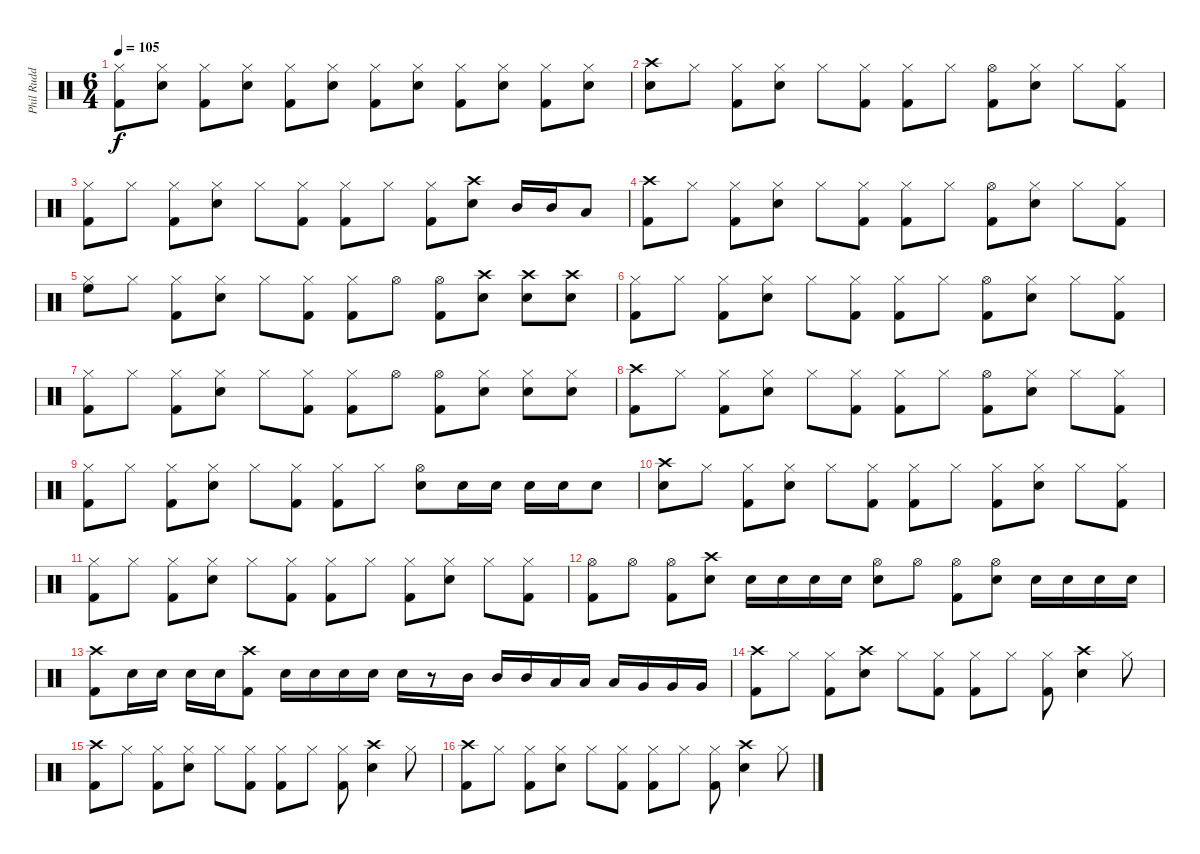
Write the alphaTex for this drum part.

\track ("Phil Rudd" "Phil Rudd") {instrument percussion}
\staff {score}
\articulation defaults
\ts (6 4)
\tempo 105
\clef neutral
\ks c
("Hi-Hat (closed)" "Kick (hit) 2").8{dy f} ("Hi-Hat (closed)" "Electric Snare (hit)").8 ("Hi-Hat (closed)" "Kick (hit) 2").8 ("Hi-Hat (closed)" "Electric Snare (hit)").8 ("Hi-Hat (closed)" "Kick (hit) 2").8 ("Hi-Hat (closed)" "Electric Snare (hit)").8 ("Hi-Hat (closed)" "Kick (hit) 2").8 ("Hi-Hat (closed)" "Electric Snare (hit)").8 ("Hi-Hat (closed)" "Kick (hit) 2").8 ("Hi-Hat (closed)" "Electric Snare (hit)").8 ("Hi-Hat (closed)" "Kick (hit) 2").8 ("Hi-Hat (closed)" "Electric Snare (hit)").8 |
("Crash high (hit)" "Electric Snare (hit)").8 "Hi-Hat (closed)".8 ("Hi-Hat (closed)" "Kick (hit) 2").8 ("Hi-Hat (closed)" "Electric Snare (hit)").8 "Hi-Hat (closed)".8 ("Hi-Hat (closed)" "Kick (hit) 2").8 ("Hi-Hat (closed)" "Kick (hit) 2").8 "Hi-Hat (closed)".8 ("Hi-Hat (open)" "Kick (hit) 2").8 ("Hi-Hat (closed)" "Electric Snare (hit)").8 "Hi-Hat (closed)".8 ("Hi-Hat (closed)" "Kick (hit) 2").8 |
("Hi-Hat (closed)" "Kick (hit) 2").8 "Hi-Hat (closed)".8 ("Hi-Hat (closed)" "Kick (hit) 2").8 ("Hi-Hat (closed)" "Electric Snare (hit)").8 "Hi-Hat (closed)".8 ("Hi-Hat (closed)" "Kick (hit) 2").8 ("Hi-Hat (closed)" "Kick (hit) 2").8 "Hi-Hat (closed)".8 ("Hi-Hat (closed)" "Kick (hit) 2").8 ("Crash high (hit)" "Electric Snare (hit)").8 "Mid Tom (hit)".16 "Mid Tom (hit)".16 "Low Tom (hit)".8 |
("Crash high (hit)" "Kick (hit) 2").8 "Hi-Hat (closed)".8 ("Hi-Hat (closed)" "Kick (hit) 2").8 ("Hi-Hat (closed)" "Electric Snare (hit)").8 "Hi-Hat (closed)".8 ("Hi-Hat (closed)" "Kick (hit) 2").8 ("Hi-Hat (closed)" "Kick (hit) 2").8 "Hi-Hat (closed)".8 ("Hi-Hat (open)" "Kick (hit) 2").8 ("Hi-Hat (closed)" "Electric Snare (hit)").8 "Hi-Hat (closed)".8 ("Hi-Hat (closed)" "Kick (hit) 2").8 |
("Hi-Hat (closed)" "High Floor Tom (hit)").8 "Hi-Hat (closed)".8 ("Hi-Hat (closed)" "Kick (hit) 2").8 ("Hi-Hat (closed)" "Electric Snare (hit)").8 "Hi-Hat (closed)".8 ("Hi-Hat (closed)" "Kick (hit) 2").8 ("Hi-Hat (closed)" "Kick (hit) 2").8 "Hi-Hat (open)".8 ("Hi-Hat (open)" "Kick (hit) 2").8 ("Crash high (hit)" "Electric Snare (hit)").8 ("Crash high (hit)" "Electric Snare (hit)").8 ("Crash high (hit)" "Electric Snare (hit)").8 |
("Hi-Hat (closed)" "Kick (hit) 2").8 "Hi-Hat (closed)".8 ("Hi-Hat (closed)" "Kick (hit) 2").8 ("Hi-Hat (closed)" "Electric Snare (hit)").8 "Hi-Hat (closed)".8 ("Hi-Hat (closed)" "Kick (hit) 2").8 ("Hi-Hat (closed)" "Kick (hit) 2").8 "Hi-Hat (closed)".8 ("Hi-Hat (open)" "Kick (hit) 2").8 ("Hi-Hat (closed)" "Electric Snare (hit)").8 "Hi-Hat (closed)".8 ("Hi-Hat (closed)" "Kick (hit) 2").8 |
("Hi-Hat (closed)" "Kick (hit) 2").8 "Hi-Hat (closed)".8 ("Hi-Hat (closed)" "Kick (hit) 2").8 ("Hi-Hat (closed)" "Electric Snare (hit)").8 "Hi-Hat (closed)".8 ("Hi-Hat (closed)" "Kick (hit) 2").8 ("Hi-Hat (closed)" "Kick (hit) 2").8 "Hi-Hat (open)".8 ("Hi-Hat (open)" "Kick (hit) 2").8 ("Hi-Hat (closed)" "Electric Snare (hit)").8 ("Hi-Hat (closed)" "Electric Snare (hit)").8 ("Hi-Hat (closed)" "Electric Snare (hit)").8 |
("Crash high (hit)" "Kick (hit) 2").8 "Hi-Hat (closed)".8 ("Hi-Hat (closed)" "Kick (hit) 2").8 ("Hi-Hat (closed)" "Electric Snare (hit)").8 "Hi-Hat (closed)".8 ("Hi-Hat (closed)" "Kick (hit) 2").8 ("Hi-Hat (closed)" "Kick (hit) 2").8 "Hi-Hat (closed)".8 ("Hi-Hat (open)" "Kick (hit) 2").8 ("Hi-Hat (closed)" "Electric Snare (hit)").8 "Hi-Hat (closed)".8 ("Hi-Hat (closed)" "Kick (hit) 2").8 |
("Hi-Hat (closed)" "Kick (hit) 2").8 "Hi-Hat (closed)".8 ("Hi-Hat (closed)" "Kick (hit) 2").8 ("Hi-Hat (closed)" "Electric Snare (hit)").8 "Hi-Hat (closed)".8 ("Hi-Hat (closed)" "Kick (hit) 2").8 ("Hi-Hat (closed)" "Kick (hit) 2").8 "Hi-Hat (closed)".8 ("Hi-Hat (open)" "Electric Snare (hit)").8 "Electric Snare (hit)".16 "Electric Snare (hit)".16 "Electric Snare (hit)".16 "Electric Snare (hit)".16 "Electric Snare (hit)".8 |
("Crash high (hit)" "Electric Snare (hit)").8 "Hi-Hat (closed)".8 ("Hi-Hat (closed)" "Kick (hit) 2").8 ("Hi-Hat (closed)" "Electric Snare (hit)").8 "Hi-Hat (closed)".8 ("Hi-Hat (closed)" "Kick (hit) 2").8 ("Hi-Hat (closed)" "Kick (hit) 2").8 "Hi-Hat (closed)".8 ("Hi-Hat (closed)" "Kick (hit) 2").8 ("Hi-Hat (closed)" "Electric Snare (hit)").8 "Hi-Hat (closed)".8 ("Hi-Hat (closed)" "Kick (hit) 2").8 |
("Hi-Hat (closed)" "Kick (hit) 2").8 "Hi-Hat (closed)".8 ("Hi-Hat (closed)" "Kick (hit) 2").8 ("Hi-Hat (closed)" "Electric Snare (hit)").8 "Hi-Hat (closed)".8 ("Hi-Hat (closed)" "Kick (hit) 2").8 ("Hi-Hat (closed)" "Kick (hit) 2").8 "Hi-Hat (closed)".8 ("Hi-Hat (closed)" "Kick (hit) 2").8 ("Hi-Hat (closed)" "Electric Snare (hit)").8 "Hi-Hat (closed)".8 ("Hi-Hat (closed)" "Kick (hit) 2").8 |
("Hi-Hat (open)" "Kick (hit) 2").8 "Hi-Hat (open)".8 ("Hi-Hat (open)" "Kick (hit) 2").8 ("Crash high (hit)" "Electric Snare (hit)").8 "Electric Snare (hit)".16 "Electric Snare (hit)".16 "Electric Snare (hit)".16 "Electric Snare (hit)".16 ("Hi-Hat (open)" "Electric Snare (hit)").8 "Hi-Hat (open)".8 ("Hi-Hat (open)" "Kick (hit) 2").8 ("Hi-Hat (open)" "Electric Snare (hit)").8 "Electric Snare (hit)".16 "Electric Snare (hit)".16 "Electric Snare (hit)".16 "Electric Snare (hit)".16 |
("Crash high (hit)" "Kick (hit) 2").8 "Electric Snare (hit)".16 "Electric Snare (hit)".16 "Electric Snare (hit)".16 "Electric Snare (hit)".16 ("Crash high (hit)" "Kick (hit) 2").8 "Electric Snare (hit)".16 "Electric Snare (hit)".16 "Electric Snare (hit)".16 "Electric Snare (hit)".16 "Electric Snare (hit)".16 r.8 "Mid Tom (hit)".16 "Mid Tom (hit)".16 "Mid Tom (hit)".16 "Low Tom (hit)".16 "Low Tom (hit)".16 "Low Tom (hit)".16 "Very Low Tom (hit)".16 "Very Low Tom (hit)".16 "Very Low Tom (hit)".16 |
("Crash high (hit)" "Kick (hit) 2").8 "Hi-Hat (closed)".8 ("Hi-Hat (closed)" "Kick (hit) 2").8 ("Crash high (hit)" "Electric Snare (hit)").8 "Hi-Hat (closed)".8 ("Hi-Hat (closed)" "Kick (hit) 2").8 ("Hi-Hat (closed)" "Kick (hit) 2").8 "Hi-Hat (closed)".8 ("Hi-Hat (closed)" "Kick (hit) 2").8 ("Crash high (hit)" "Electric Snare (hit)").4 "Hi-Hat (closed)".8 |
("Crash high (hit)" "Kick (hit) 2").8 "Hi-Hat (closed)".8 ("Hi-Hat (closed)" "Kick (hit) 2").8 ("Hi-Hat (closed)" "Electric Snare (hit)").8 "Hi-Hat (closed)".8 ("Hi-Hat (closed)" "Kick (hit) 2").8 ("Hi-Hat (closed)" "Kick (hit) 2").8 "Hi-Hat (closed)".8 ("Hi-Hat (closed)" "Kick (hit) 2").8 ("Crash high (hit)" "Electric Snare (hit)").4 "Hi-Hat (closed)".8 |
("Crash high (hit)" "Kick (hit) 2").8 "Hi-Hat (closed)".8 ("Hi-Hat (closed)" "Kick (hit) 2").8 ("Hi-Hat (closed)" "Electric Snare (hit)").8 "Hi-Hat (closed)".8 ("Hi-Hat (closed)" "Kick (hit) 2").8 ("Hi-Hat (closed)" "Kick (hit) 2").8 "Hi-Hat (closed)".8 ("Hi-Hat (closed)" "Kick (hit) 2").8 ("Crash high (hit)" "Electric Snare (hit)").4 "Hi-Hat (closed)".8
